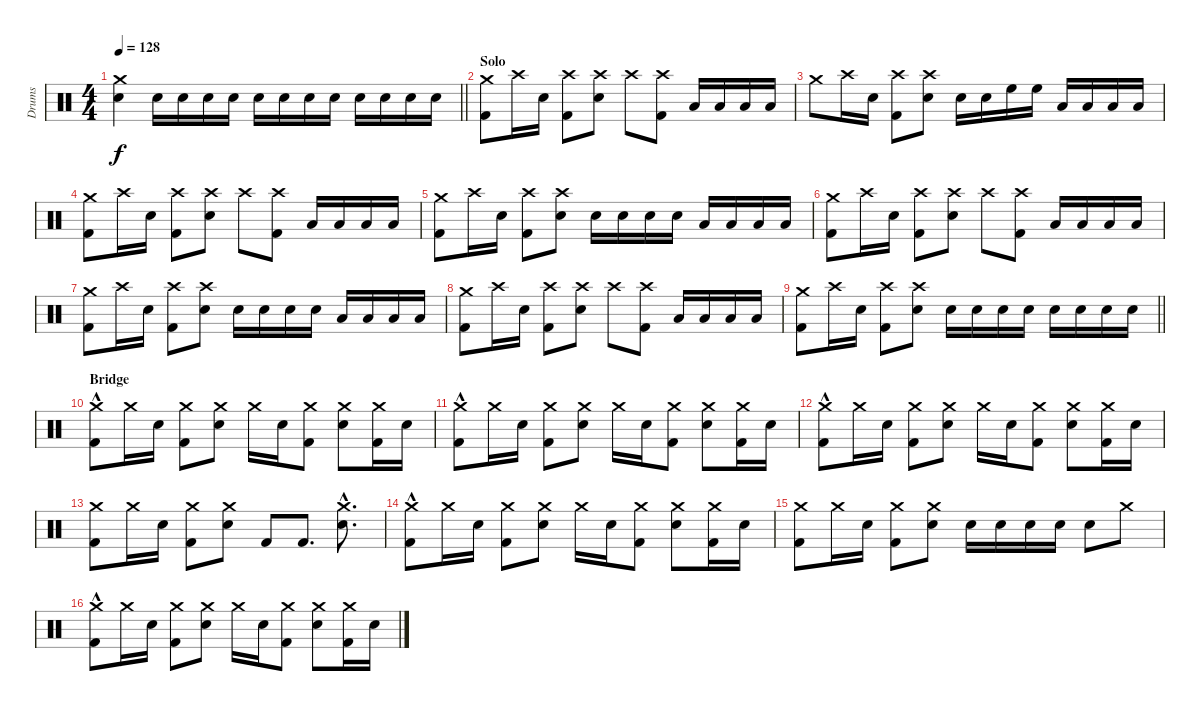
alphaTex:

\track ("Drums" "Drums") {instrument percussion}
\staff {score}
\articulation defaults
\ts (4 4)
\tempo 128
\clef neutral
\barLineRight lightlight
\ks c
("Crash medium (hit)" "Snare (hit) 2").4{dy f} "Snare (hit) 2".16 "Snare (hit) 2".16 "Snare (hit) 2".16 "Snare (hit) 2".16 "Snare (hit) 2".16 "Snare (hit) 2".16 "Snare (hit) 2".16 "Snare (hit) 2".16 "Snare (hit) 2".16 "Snare (hit) 2".16 "Snare (hit) 2".16 "Snare (hit) 2".16 |
\section ("" "Solo")
("Crash medium (hit)" "Kick (hit) 2").8 "Crash high (hit)".16 "Snare (hit) 2".16 ("Crash high (hit)" "Kick (hit) 2").8 ("Crash high (hit)" "Snare (hit) 2").8 "Crash high (hit)".8 ("Crash high (hit)" "Kick (hit) 2").8 "Low Tom (hit)".16 "Low Tom (hit)".16 "Low Floor Tom (hit)".16 "Low Floor Tom (hit)".16 |
"Crash medium (hit)".8 "Crash high (hit)".16 "Snare (hit) 2".16 ("Crash high (hit)" "Kick (hit) 2").8 ("Crash high (hit)" "Snare (hit) 2").8 "Snare (hit) 2".16 "Snare (hit) 2".16 "High Floor Tom (hit)".16 "High Floor Tom (hit)".16 "Low Tom (hit)".16 "Low Tom (hit)".16 "Low Floor Tom (hit)".16 "Low Floor Tom (hit)".16 |
("Crash medium (hit)" "Kick (hit) 2").8 "Crash high (hit)".16 "Snare (hit) 2".16 ("Crash high (hit)" "Kick (hit) 2").8 ("Crash high (hit)" "Snare (hit) 2").8 "Crash high (hit)".8 ("Crash high (hit)" "Kick (hit) 2").8 "Low Tom (hit)".16 "Low Tom (hit)".16 "Low Floor Tom (hit)".16 "Low Floor Tom (hit)".16 |
("Crash medium (hit)" "Kick (hit) 2").8 "Crash high (hit)".16 "Snare (hit) 2".16 ("Crash high (hit)" "Kick (hit) 2").8 ("Crash high (hit)" "Snare (hit) 2").8 "Snare (hit) 2".16 "Snare (hit) 2".16 "Snare (hit) 2".16 "Snare (hit) 2".16 "Low Tom (hit)".16 "Low Tom (hit)".16 "Low Floor Tom (hit)".16 "Low Floor Tom (hit)".16 |
("Crash medium (hit)" "Kick (hit) 2").8 "Crash high (hit)".16 "Snare (hit) 2".16 ("Crash high (hit)" "Kick (hit) 2").8 ("Crash high (hit)" "Snare (hit) 2").8 "Crash high (hit)".8 ("Crash high (hit)" "Kick (hit) 2").8 "Low Tom (hit)".16 "Low Tom (hit)".16 "Low Floor Tom (hit)".16 "Low Floor Tom (hit)".16 |
("Crash medium (hit)" "Kick (hit) 2").8 "Crash high (hit)".16 "Snare (hit) 2".16 ("Crash high (hit)" "Kick (hit) 2").8 ("Crash high (hit)" "Snare (hit) 2").8 "Snare (hit) 2".16 "Snare (hit) 2".16 "Snare (hit) 2".16 "Snare (hit) 2".16 "Low Tom (hit)".16 "Low Tom (hit)".16 "Low Floor Tom (hit)".16 "Low Floor Tom (hit)".16 |
("Crash medium (hit)" "Kick (hit) 2").8 "Crash high (hit)".16 "Snare (hit) 2".16 ("Crash high (hit)" "Kick (hit) 2").8 ("Crash high (hit)" "Snare (hit) 2").8 "Crash high (hit)".8 ("Crash high (hit)" "Kick (hit) 2").8 "Low Tom (hit)".16 "Low Tom (hit)".16 "Low Floor Tom (hit)".16 "Low Floor Tom (hit)".16 |
\barLineRight lightlight
("Crash medium (hit)" "Kick (hit) 2").8 "Crash high (hit)".16 "Snare (hit) 2".16 ("Crash high (hit)" "Kick (hit) 2").8 ("Crash high (hit)" "Snare (hit) 2").8 "Snare (hit) 2".16 "Snare (hit) 2".16 "Snare (hit) 2".16 "Snare (hit) 2".16 "Snare (hit) 2".16 "Snare (hit) 2".16 "Snare (hit) 2".16 "Snare (hit) 2".16 |
\section ("" "Bridge")
("Crash medium (hit)"{hac} "Kick (hit) 2").8 "Crash medium (hit)".16 "Snare (hit) 2".16 ("Crash medium (hit)" "Kick (hit) 2").8 ("Crash medium (hit)" "Snare (hit) 2").8 "Crash medium (hit)".16 "Snare (hit) 2".16 ("Crash medium (hit)" "Kick (hit) 2").8 ("Crash medium (hit)" "Snare (hit) 2").8 ("Crash medium (hit)" "Kick (hit) 2").16 "Snare (hit) 2".16 |
("Crash medium (hit)"{hac} "Kick (hit) 2").8 "Crash medium (hit)".16 "Snare (hit) 2".16 ("Crash medium (hit)" "Kick (hit) 2").8 ("Crash medium (hit)" "Snare (hit) 2").8 "Crash medium (hit)".16 "Snare (hit) 2".16 ("Crash medium (hit)" "Kick (hit) 2").8 ("Crash medium (hit)" "Snare (hit) 2").8 ("Crash medium (hit)" "Kick (hit) 2").16 "Snare (hit) 2".16 |
("Crash medium (hit)"{hac} "Kick (hit) 2").8 "Crash medium (hit)".16 "Snare (hit) 2".16 ("Crash medium (hit)" "Kick (hit) 2").8 ("Crash medium (hit)" "Snare (hit) 2").8 "Crash medium (hit)".16 "Snare (hit) 2".16 ("Crash medium (hit)" "Kick (hit) 2").8 ("Crash medium (hit)" "Snare (hit) 2").8 ("Crash medium (hit)" "Kick (hit) 2").16 "Snare (hit) 2".16 |
("Crash medium (hit)" "Kick (hit) 2").8 "Crash medium (hit)".16 "Snare (hit) 2".16 ("Crash medium (hit)" "Kick (hit) 2").8 ("Crash medium (hit)" "Snare (hit) 2").8 "Kick (hit) 2".8 "Kick (hit) 2".8{d} ("Crash medium (hit)"{hac} "Snare (hit) 2").8{d} |
("Crash medium (hit)"{hac} "Kick (hit) 2").8 "Crash medium (hit)".16 "Snare (hit) 2".16 ("Crash medium (hit)" "Kick (hit) 2").8 ("Crash medium (hit)" "Snare (hit) 2").8 "Crash medium (hit)".16 "Snare (hit) 2".16 ("Crash medium (hit)" "Kick (hit) 2").8 ("Crash medium (hit)" "Snare (hit) 2").8 ("Crash medium (hit)" "Kick (hit) 2").16 "Snare (hit) 2".16 |
("Crash medium (hit)" "Kick (hit) 2").8 "Crash medium (hit)".16 "Snare (hit) 2".16 ("Crash medium (hit)" "Kick (hit) 2").8 ("Crash medium (hit)" "Snare (hit) 2").8 "Snare (hit) 2".16 "Snare (hit) 2".16 "Snare (hit) 2".16 "Snare (hit) 2".16 "Snare (hit) 2".8 "Crash medium (hit)".8 |
("Crash medium (hit)"{hac} "Kick (hit) 2").8 "Crash medium (hit)".16 "Snare (hit) 2".16 ("Crash medium (hit)" "Kick (hit) 2").8 ("Crash medium (hit)" "Snare (hit) 2").8 "Crash medium (hit)".16 "Snare (hit) 2".16 ("Crash medium (hit)" "Kick (hit) 2").8 ("Crash medium (hit)" "Snare (hit) 2").8 ("Crash medium (hit)" "Kick (hit) 2").16 "Snare (hit) 2".16
